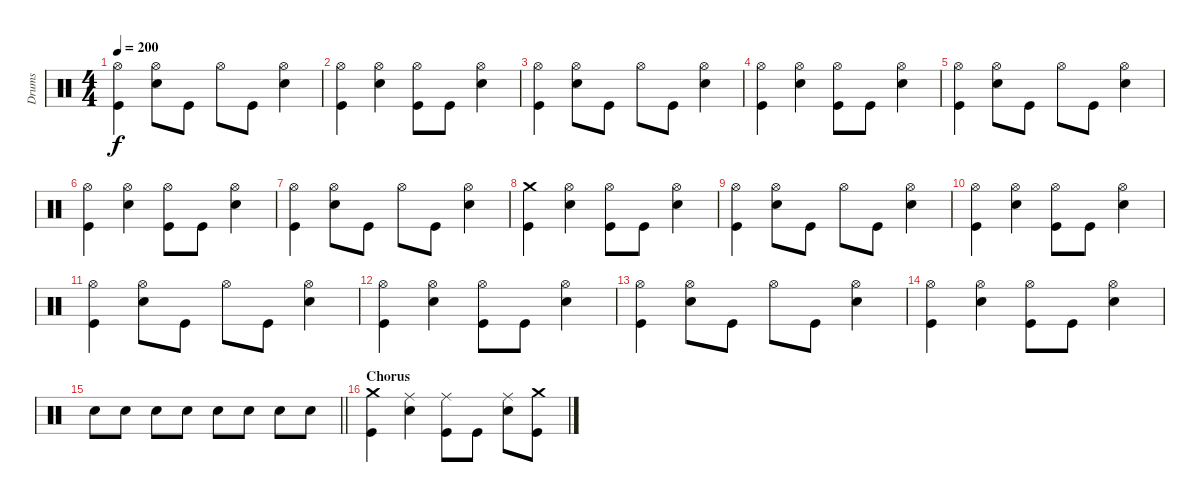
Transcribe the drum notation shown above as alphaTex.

\track ("Drums" "Drums") {instrument percussion}
\staff {score}
\articulation defaults
\ts (4 4)
\tempo 200
\clef neutral
\ks c
("Kick (hit)" "Hi-Hat (open)").4{dy f} ("Snare (hit) 2" "Hi-Hat (open)").8 "Kick (hit)".8 "Hi-Hat (open)".8 "Kick (hit)".8 ("Snare (hit) 2" "Hi-Hat (open)").4 |
("Kick (hit)" "Hi-Hat (open)").4 ("Snare (hit) 2" "Hi-Hat (open)").4 ("Kick (hit)" "Hi-Hat (open)").8 "Kick (hit)".8 ("Snare (hit) 2" "Hi-Hat (open)").4 |
("Kick (hit)" "Hi-Hat (open)").4 ("Snare (hit) 2" "Hi-Hat (open)").8 "Kick (hit)".8 "Hi-Hat (open)".8 "Kick (hit)".8 ("Snare (hit) 2" "Hi-Hat (open)").4 |
("Kick (hit)" "Hi-Hat (open)").4 ("Snare (hit) 2" "Hi-Hat (open)").4 ("Kick (hit)" "Hi-Hat (open)").8 "Kick (hit)".8 ("Snare (hit) 2" "Hi-Hat (open)").4 |
("Kick (hit)" "Hi-Hat (open)").4 ("Snare (hit) 2" "Hi-Hat (open)").8 "Kick (hit)".8 "Hi-Hat (open)".8 "Kick (hit)".8 ("Snare (hit) 2" "Hi-Hat (open)").4 |
("Kick (hit)" "Hi-Hat (open)").4 ("Snare (hit) 2" "Hi-Hat (open)").4 ("Kick (hit)" "Hi-Hat (open)").8 "Kick (hit)".8 ("Snare (hit) 2" "Hi-Hat (open)").4 |
("Kick (hit)" "Hi-Hat (open)").4 ("Snare (hit) 2" "Hi-Hat (open)").8 "Kick (hit)".8 "Hi-Hat (open)".8 "Kick (hit)".8 ("Snare (hit) 2" "Hi-Hat (open)").4 |
("Kick (hit)" "Crash medium (hit)").4 ("Snare (hit) 2" "Hi-Hat (open)").4 ("Kick (hit)" "Hi-Hat (open)").8 "Kick (hit)".8 ("Snare (hit) 2" "Hi-Hat (open)").4 |
("Kick (hit)" "Hi-Hat (open)").4 ("Snare (hit) 2" "Hi-Hat (open)").8 "Kick (hit)".8 "Hi-Hat (open)".8 "Kick (hit)".8 ("Snare (hit) 2" "Hi-Hat (open)").4 |
("Kick (hit)" "Hi-Hat (open)").4 ("Snare (hit) 2" "Hi-Hat (open)").4 ("Kick (hit)" "Hi-Hat (open)").8 "Kick (hit)".8 ("Snare (hit) 2" "Hi-Hat (open)").4 |
("Kick (hit)" "Hi-Hat (open)").4 ("Snare (hit) 2" "Hi-Hat (open)").8 "Kick (hit)".8 "Hi-Hat (open)".8 "Kick (hit)".8 ("Snare (hit) 2" "Hi-Hat (open)").4 |
("Kick (hit)" "Hi-Hat (open)").4 ("Snare (hit) 2" "Hi-Hat (open)").4 ("Kick (hit)" "Hi-Hat (open)").8 "Kick (hit)".8 ("Snare (hit) 2" "Hi-Hat (open)").4 |
("Kick (hit)" "Hi-Hat (open)").4 ("Snare (hit) 2" "Hi-Hat (open)").8 "Kick (hit)".8 "Hi-Hat (open)".8 "Kick (hit)".8 ("Snare (hit) 2" "Hi-Hat (open)").4 |
("Kick (hit)" "Hi-Hat (open)").4 ("Snare (hit) 2" "Hi-Hat (open)").4 ("Kick (hit)" "Hi-Hat (open)").8 "Kick (hit)".8 ("Snare (hit) 2" "Hi-Hat (open)").4 |
\barLineRight lightlight "Snare (hit) 2".8 "Snare (hit) 2".8 "Snare (hit) 2".8 "Snare (hit) 2".8 "Snare (hit) 2".8 "Snare (hit) 2".8 "Snare (hit) 2".8 "Snare (hit) 2".8
|
\section ("" "Chorus")
("Kick (hit)" "Crash medium (hit)").4 ("Snare (hit) 2" "Ride (middle)").4 ("Kick (hit)" "Ride (middle)").8 "Kick (hit)".8 ("Snare (hit) 2" "Ride (middle)").8 ("Kick (hit)" "Crash medium (hit)").8
